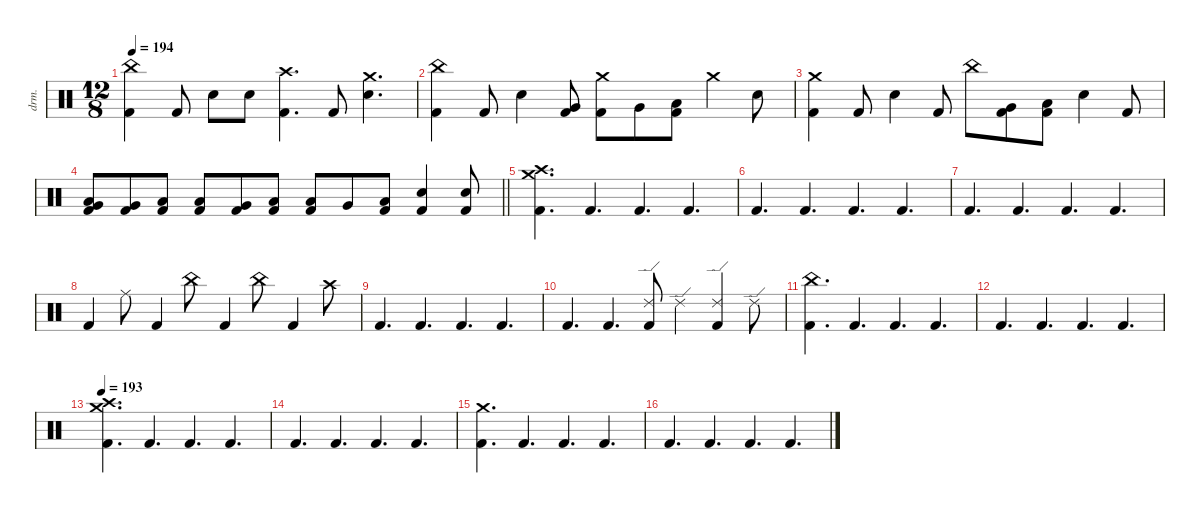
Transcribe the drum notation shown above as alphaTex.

\defaultSystemsLayout 4
\hideDynamics
\bracketExtendMode nobrackets
\otherSystemsTrackNameOrientation horizontal
\track ("Drums" "drm.") {defaultSystemsLayout 4 instrument percussion}
\staff {score}
\articulation defaults
\ts (12 8)
\tempo 194
\clef neutral
\ks c
("China (hit)" "Kick (hit) 2").4{dy f beam Down} "Kick (hit) 2".8{beam Up} "Snare (hit) 2".8{beam Down} "Snare (hit) 2".8{beam Down} ("Crash high (hit)" "Kick (hit) 2").4{d beam Down} "Kick (hit) 2".8{beam Up} ("Crash medium (hit)" "Snare (hit) 2").4{d beam Down} |
("China (hit)" "Kick (hit) 2").4{beam Down} "Kick (hit) 2".8{beam Up} "Snare (hit) 2".4{beam Down} ("Very Low Tom (hit)" "Kick (hit) 2").8{beam Up} ("Crash medium (hit)" "Kick (hit) 2").8{beam Down} "Very Low Tom (hit)".8{beam Down} ("Low Floor Tom (hit)" "Kick (hit) 2").8{beam Down} "Crash medium (hit)".4{beam Down} "Snare (hit) 2".8{beam Down} |
("Crash medium (hit)" "Kick (hit) 2").4{beam Down} "Kick (hit) 2".8{beam Up} "Snare (hit) 2".4{beam Down} "Kick (hit) 2".8{beam Up} "China (hit)".8{beam Down} ("Very Low Tom (hit)" "Kick (hit) 2").8{beam Down} ("Low Floor Tom (hit)" "Kick (hit) 2").8{beam Down} "Snare (hit) 2".4{beam Down} "Kick (hit) 2".8{beam Up} |
\barLineRight lightlight
("Low Tom (hit)" "Very Low Tom (hit)" "Kick (hit) 2").8{beam Up} ("Very Low Tom (hit)" "Kick (hit) 2").8{beam Up} ("Low Floor Tom (hit)" "Kick (hit) 2").8{beam Up} ("Low Tom (hit)" "Kick (hit) 2").8{beam Up} ("Very Low Tom (hit)" "Kick (hit) 2").8{beam Up} ("Low Floor Tom (hit)" "Kick (hit) 2").8{beam Up} ("Low Tom (hit)" "Kick (hit) 2").8{beam Up} "Very Low Tom (hit)".8{beam Up} ("Low Floor Tom (hit)" "Kick (hit) 2").8{beam Up} ("Snare (hit) 2" "Kick (hit) 2").4{beam Up} ("Snare (hit) 2" "Kick (hit) 2").8{beam Up} |
("Crash medium (hit)" "Crash high (hit)" "Kick (hit) 2").4{d beam Down} "Kick (hit) 2".4{d beam Up} "Kick (hit) 2".4{d beam Up} "Kick (hit) 2".4{d beam Up} |
"Kick (hit) 2".4{d beam Up} "Kick (hit) 2".4{d beam Up} "Kick (hit) 2".4{d beam Up} "Kick (hit) 2".4{d beam Up} |
"Kick (hit) 2".4{d beam Up} "Kick (hit) 2".4{d beam Up} "Kick (hit) 2".4{d beam Up} "Kick (hit) 2".4{d beam Up} |
"Kick (hit) 2".4{beam Up} "Ride (middle)".8{beam Down} "Kick (hit) 2".4{beam Up} "China (hit)".8{beam Down} "Kick (hit) 2".4{beam Up} "China (hit)".8{beam Down} "Kick (hit) 2".4{beam Up} "Crash high (hit)".8{beam Down} |
"Kick (hit) 2".4{d beam Up} "Kick (hit) 2".4{d beam Up} "Kick (hit) 2".4{d beam Up} "Kick (hit) 2".4{d beam Up} |
"Kick (hit) 2".4{d beam Up} "Kick (hit) 2".4{d beam Up} ("Ride (edge) 2" "Kick (hit) 2").8{beam Up} "Ride (edge) 2".4{beam Down} ("Ride (edge) 2" "Kick (hit) 2").4{beam Up} "Ride (edge) 2".8{beam Down} |
("China (hit)" "Kick (hit) 2").4{d beam Down} "Kick (hit) 2".4{d beam Up} "Kick (hit) 2".4{d beam Up} "Kick (hit) 2".4{d beam Up} |
"Kick (hit) 2".4{d beam Up} "Kick (hit) 2".4{d beam Up} "Kick (hit) 2".4{d beam Up} "Kick (hit) 2".4{d beam Up} |
\tempo 193
("Crash medium (hit)" "Crash high (hit)" "Kick (hit) 2").4{d beam Down} "Kick (hit) 2".4{d beam Up} "Kick (hit) 2".4{d beam Up} "Kick (hit) 2".4{d beam Up} |
"Kick (hit) 2".4{d beam Up} "Kick (hit) 2".4{d beam Up} "Kick (hit) 2".4{d beam Up} "Kick (hit) 2".4{d beam Up} |
("Crash medium (hit)" "Kick (hit) 2").4{d beam Down} "Kick (hit) 2".4{d beam Up} "Kick (hit) 2".4{d beam Up} "Kick (hit) 2".4{d beam Up} |
"Kick (hit) 2".4{d beam Up} "Kick (hit) 2".4{d beam Up} "Kick (hit) 2".4{d beam Up} "Kick (hit) 2".4{d beam Up}
